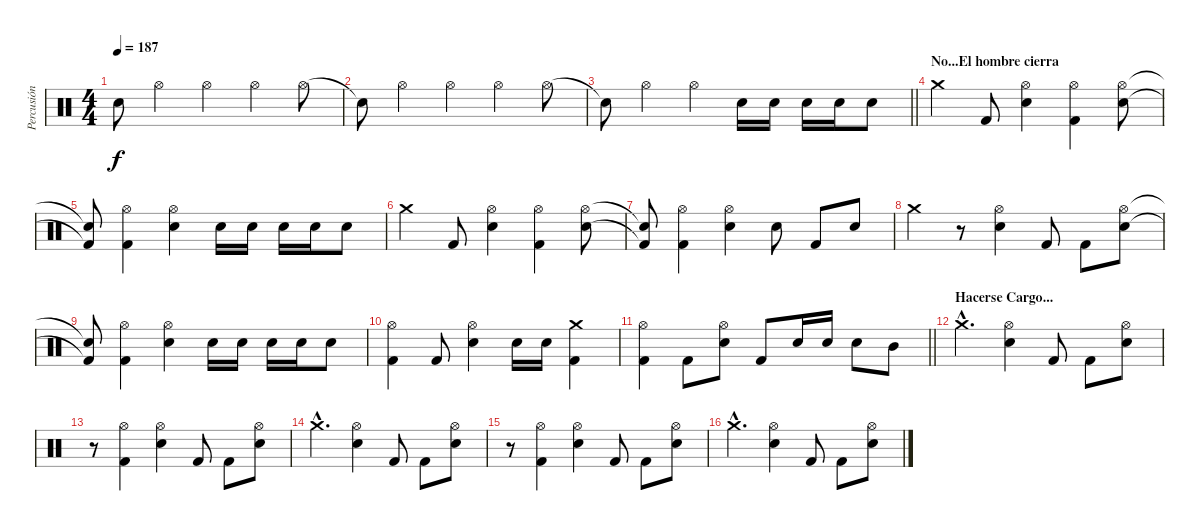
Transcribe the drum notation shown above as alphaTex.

\track ("Percusión" "Percusión") {instrument percussion}
\staff {score}
\articulation defaults
\ts (4 4)
\tempo 187
\clef neutral
\ks c "Snare (hit)"{t}.8{dy f} "Hi-Hat (open)".4 "Hi-Hat (open)".4 "Hi-Hat (open)".4 "Hi-Hat (open)".8
|
"Snare (hit)"{t}.8 "Hi-Hat (open)".4 "Hi-Hat (open)".4 "Hi-Hat (open)".4 "Hi-Hat (open)".8 |
\barLineRight lightlight "Snare (hit)"{t}.8 "Hi-Hat (open)".4 "Hi-Hat (open)".4 "Snare (hit) 2".16 "Snare (hit) 2".16 "Snare (hit) 2".16 "Snare (hit) 2".16 "Snare (hit) 2".8
|
\section ("" "No...El hombre cierra")
"Crash medium (hit)".4 "Kick (hit) 2".8 ("Hi-Hat (open)" "Snare (hit) 2").4 ("Hi-Hat (open)" "Kick (hit) 2").4 ("Hi-Hat (open)" "Snare (hit) 2").8 |
("Snare (hit)"{t} "Kick (hit) 2"{t}).8 ("Hi-Hat (open)" "Kick (hit) 2").4 ("Hi-Hat (open)" "Snare (hit) 2").4 "Snare (hit) 2".16 "Snare (hit) 2".16 "Snare (hit) 2".16 "Snare (hit) 2".16 "Snare (hit) 2".8 |
"Crash medium (hit)".4 "Kick (hit) 2".8 ("Hi-Hat (open)" "Snare (hit) 2").4 ("Hi-Hat (open)" "Kick (hit) 2").4 ("Hi-Hat (open)" "Snare (hit) 2").8 |
("Snare (hit)"{t} "Kick (hit) 2"{t}).8 ("Hi-Hat (open)" "Kick (hit) 2").4 ("Hi-Hat (open)" "Snare (hit) 2").4 "Snare (hit) 2".8 "Kick (hit) 2".8 "Snare (hit) 2".8 |
"Crash medium (hit)".4 r.8 ("Hi-Hat (open)" "Snare (hit) 2").4 "Kick (hit) 2".8 "Kick (hit) 2".8 ("Hi-Hat (open)" "Snare (hit) 2").8 |
("Snare (hit)"{t} "Kick (hit) 2"{t}).8 ("Hi-Hat (open)" "Kick (hit) 2").4 ("Hi-Hat (open)" "Snare (hit) 2").4 "Snare (hit) 2".16 "Snare (hit) 2".16 "Snare (hit) 2".16 "Snare (hit) 2".16 "Snare (hit) 2".8 |
("Hi-Hat (open)" "Kick (hit) 2").4 "Kick (hit) 2".8 ("Hi-Hat (open)" "Snare (hit) 2").4 "Snare (hit) 2".16 "Snare (hit) 2".16 ("Crash medium (hit)" "Kick (hit) 2").4 |
\barLineRight lightlight
("Hi-Hat (open)" "Kick (hit) 2").4 "Kick (hit) 2".8 ("Hi-Hat (open)" "Snare (hit) 2").8 "Kick (hit) 2".8 "Snare (hit) 2".16 "Snare (hit) 2".16 "Snare (hit) 2".8 "Mid Tom (hit)".8 |
\section ("" "Hacerse Cargo...")
"Crash medium (hit)"{hac}.4{d} ("Hi-Hat (open)" "Snare (hit) 2").4 "Kick (hit) 2".8 "Kick (hit) 2".8 ("Hi-Hat (open)" "Snare (hit) 2").8 |
r.8 ("Hi-Hat (open)" "Kick (hit) 2").4 ("Hi-Hat (open)" "Snare (hit) 2").4 "Kick (hit) 2".8 "Kick (hit) 2".8 ("Hi-Hat (open)" "Snare (hit) 2").8 |
"Crash medium (hit)"{hac}.4{d} ("Hi-Hat (open)" "Snare (hit) 2").4 "Kick (hit) 2".8 "Kick (hit) 2".8 ("Hi-Hat (open)" "Snare (hit) 2").8 |
r.8 ("Hi-Hat (open)" "Kick (hit) 2").4 ("Hi-Hat (open)" "Snare (hit) 2").4 "Kick (hit) 2".8 "Kick (hit) 2".8 ("Hi-Hat (open)" "Snare (hit) 2").8 |
"Crash medium (hit)"{hac}.4{d} ("Hi-Hat (open)" "Snare (hit) 2").4 "Kick (hit) 2".8 "Kick (hit) 2".8 ("Hi-Hat (open)" "Snare (hit) 2").8
